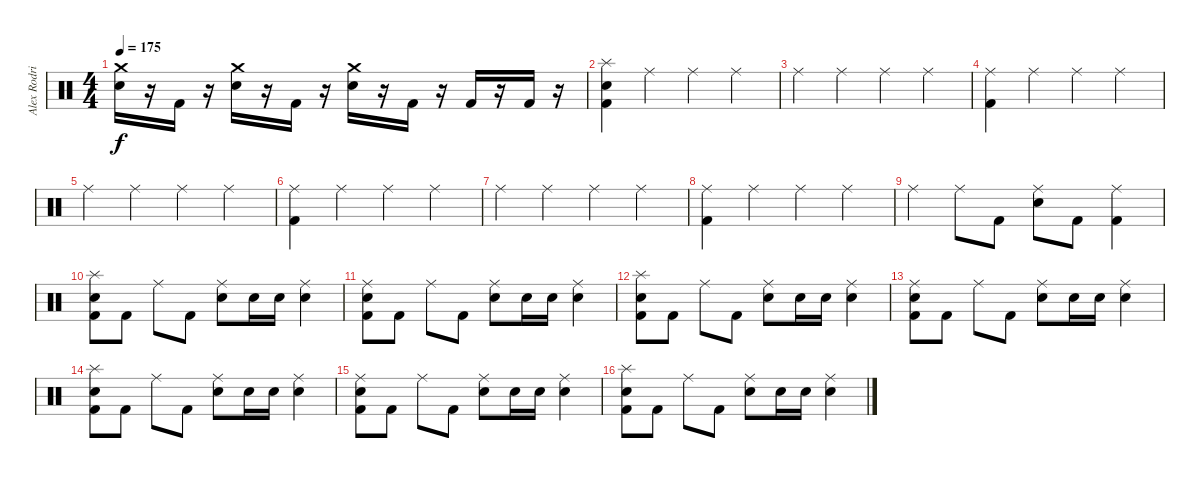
\track ("Alex Rodriguez" "Alex Rodri") {instrument percussion}
\staff {score}
\articulation defaults
\ts (4 4)
\tempo 175
\clef neutral
\ks c
("Crash medium (hit)" "Electric Snare (hit)").16{dy f} r.16 "Kick (hit) 2".16 r.16 ("Crash medium (hit)" "Electric Snare (hit)").16 r.16 "Kick (hit) 2".16 r.16 ("Crash medium (hit)" "Electric Snare (hit)").16 r.16 "Kick (hit) 2".16 r.16 "Kick (hit) 2".16 r.16 "Kick (hit) 2".16 r.16 |
("Splash (hit)" "Electric Snare (hit)" "Kick (hit) 2").4 "Ride (middle)".4 "Ride (middle)".4 "Ride (middle)".4 |
"Ride (middle)".4 "Ride (middle)".4 "Ride (middle)".4 "Ride (middle)".4 |
("Ride (middle)" "Kick (hit) 2").4 "Ride (middle)".4 "Ride (middle)".4 "Ride (middle)".4 |
"Ride (middle)".4 "Ride (middle)".4 "Ride (middle)".4 "Ride (middle)".4 |
("Ride (middle)" "Kick (hit) 2").4 "Ride (middle)".4 "Ride (middle)".4 "Ride (middle)".4 |
"Ride (middle)".4 "Ride (middle)".4 "Ride (middle)".4 "Ride (middle)".4 |
("Ride (middle)" "Kick (hit) 2").4 "Ride (middle)".4 "Ride (middle)".4 "Ride (middle)".4 |
"Ride (middle)".4 "Ride (middle)".8 "Kick (hit) 2".8 ("Ride (middle)" "Electric Snare (hit)").8 "Kick (hit) 2".8 ("Ride (middle)" "Kick (hit) 2").4 |
("Splash (hit)" "Electric Snare (hit)" "Kick (hit) 2").8 "Kick (hit) 2".8 "Ride (middle)".8 "Kick (hit) 2".8 ("Ride (middle)" "Electric Snare (hit)").8 "Electric Snare (hit)".16 "Electric Snare (hit)".16 ("Ride (middle)" "Electric Snare (hit)").4 |
("Ride (middle)" "Electric Snare (hit)" "Kick (hit) 2").8 "Kick (hit) 2".8 "Ride (middle)".8 "Kick (hit) 2".8 ("Ride (middle)" "Electric Snare (hit)").8 "Electric Snare (hit)".16 "Electric Snare (hit)".16 ("Ride (middle)" "Electric Snare (hit)").4 |
("Splash (hit)" "Electric Snare (hit)" "Kick (hit) 2").8 "Kick (hit) 2".8 "Ride (middle)".8 "Kick (hit) 2".8 ("Ride (middle)" "Electric Snare (hit)").8 "Electric Snare (hit)".16 "Electric Snare (hit)".16 ("Ride (middle)" "Electric Snare (hit)").4 |
("Ride (middle)" "Electric Snare (hit)" "Kick (hit) 2").8 "Kick (hit) 2".8 "Ride (middle)".8 "Kick (hit) 2".8 ("Ride (middle)" "Electric Snare (hit)").8 "Electric Snare (hit)".16 "Electric Snare (hit)".16 ("Ride (middle)" "Electric Snare (hit)").4 |
("Splash (hit)" "Electric Snare (hit)" "Kick (hit) 2").8 "Kick (hit) 2".8 "Ride (middle)".8 "Kick (hit) 2".8 ("Ride (middle)" "Electric Snare (hit)").8 "Electric Snare (hit)".16 "Electric Snare (hit)".16 ("Ride (middle)" "Electric Snare (hit)").4 |
("Ride (middle)" "Electric Snare (hit)" "Kick (hit) 2").8 "Kick (hit) 2".8 "Ride (middle)".8 "Kick (hit) 2".8 ("Ride (middle)" "Electric Snare (hit)").8 "Electric Snare (hit)".16 "Electric Snare (hit)".16 ("Ride (middle)" "Electric Snare (hit)").4 |
("Splash (hit)" "Electric Snare (hit)" "Kick (hit) 2").8 "Kick (hit) 2".8 "Ride (middle)".8 "Kick (hit) 2".8 ("Ride (middle)" "Electric Snare (hit)").8 "Electric Snare (hit)".16 "Electric Snare (hit)".16 ("Ride (middle)" "Electric Snare (hit)").4
